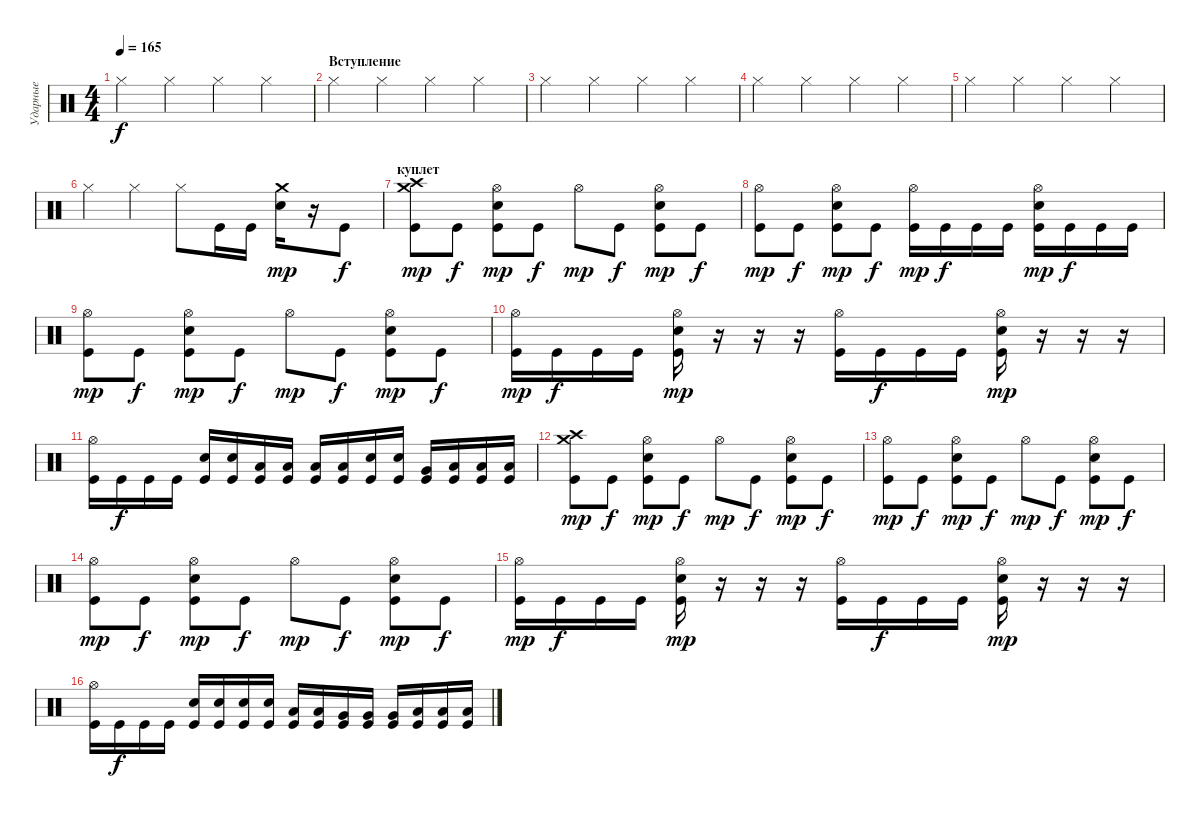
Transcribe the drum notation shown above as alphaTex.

\track ("Ударные" "Ударные") {instrument percussion}
\staff {score}
\articulation defaults
\ts (4 4)
\tempo 165
\clef neutral
\ks c "Hi-Hat (closed)".4{dy f} "Hi-Hat (closed)".4 "Hi-Hat (closed)".4 "Hi-Hat (closed)".4
|
\section ("" "Вступление")
"Hi-Hat (closed)".4 "Hi-Hat (closed)".4 "Hi-Hat (closed)".4 "Hi-Hat (closed)".4 |
"Hi-Hat (closed)".4 "Hi-Hat (closed)".4 "Hi-Hat (closed)".4 "Hi-Hat (closed)".4 |
"Hi-Hat (closed)".4 "Hi-Hat (closed)".4 "Hi-Hat (closed)".4 "Hi-Hat (closed)".4 |
"Hi-Hat (closed)".4 "Hi-Hat (closed)".4 "Hi-Hat (closed)".4 "Hi-Hat (closed)".4 |
"Hi-Hat (closed)".4 "Hi-Hat (closed)".4 "Hi-Hat (closed)".8 "Kick (hit)".16 "Kick (hit)".16 ("Crash medium (hit)" "Electric Snare (hit)").16{dy mp} r.16 "Kick (hit)".8{dy f} |
\section ("" "куплет")
("Crash medium (hit)" "Crash high (hit)" "Kick (hit)").8{dy mp} "Kick (hit)".8{dy f} ("Hi-Hat (open)" "Electric Snare (hit)" "Kick (hit)").8{dy mp} "Kick (hit)".8{dy f} "Hi-Hat (open)".8{dy mp} "Kick (hit)".8{dy f} ("Hi-Hat (open)" "Electric Snare (hit)" "Kick (hit)").8{dy mp} "Kick (hit)".8{dy f} |
("Hi-Hat (open)" "Kick (hit)").8{dy mp} "Kick (hit)".8{dy f} ("Hi-Hat (open)" "Electric Snare (hit)" "Kick (hit)").8{dy mp} "Kick (hit)".8{dy f} ("Hi-Hat (open)" "Kick (hit)").16{dy mp} "Kick (hit)".16{dy f} "Kick (hit)".16 "Kick (hit)".16 ("Hi-Hat (open)" "Electric Snare (hit)" "Kick (hit)").16{dy mp} "Kick (hit)".16{dy f} "Kick (hit)".16 "Kick (hit)".16 |
("Hi-Hat (open)" "Kick (hit)").8{dy mp} "Kick (hit)".8{dy f} ("Hi-Hat (open)" "Electric Snare (hit)" "Kick (hit)").8{dy mp} "Kick (hit)".8{dy f} "Hi-Hat (open)".8{dy mp} "Kick (hit)".8{dy f} ("Hi-Hat (open)" "Electric Snare (hit)" "Kick (hit)").8{dy mp} "Kick (hit)".8{dy f} |
("Hi-Hat (open)" "Kick (hit)").16{dy mp} "Kick (hit)".16{dy f} "Kick (hit)".16 "Kick (hit)".16 ("Hi-Hat (open)" "Electric Snare (hit)" "Kick (hit)").16{dy mp} r.16 r.16 r.16 ("Hi-Hat (open)" "Kick (hit)").16 "Kick (hit)".16{dy f} "Kick (hit)".16 "Kick (hit)".16 ("Hi-Hat (open)" "Electric Snare (hit)" "Kick (hit)").16{dy mp} r.16 r.16 r.16 |
("Hi-Hat (open)" "Kick (hit)").16 "Kick (hit)".16{dy f} "Kick (hit)".16 "Kick (hit)".16 ("Electric Snare (hit)" "Kick (hit)").16 ("Electric Snare (hit)" "Kick (hit)").16 ("Low Tom (hit)" "Kick (hit)").16 ("Low Tom (hit)" "Kick (hit)").16 ("Low Tom (hit)" "Kick (hit)").16 ("Low Tom (hit)" "Kick (hit)").16 ("Electric Snare (hit)" "Kick (hit)").16 ("Electric Snare (hit)" "Kick (hit)").16 ("Very Low Tom (hit)" "Kick (hit)").16 ("Low Floor Tom (hit)" "Kick (hit)").16 ("Low Floor Tom (hit)" "Kick (hit)").16 ("Low Floor Tom (hit)" "Kick (hit)").16 |
("Crash medium (hit)" "Crash high (hit)" "Kick (hit)").8{dy mp} "Kick (hit)".8{dy f} ("Hi-Hat (open)" "Electric Snare (hit)" "Kick (hit)").8{dy mp} "Kick (hit)".8{dy f} "Hi-Hat (open)".8{dy mp} "Kick (hit)".8{dy f} ("Hi-Hat (open)" "Electric Snare (hit)" "Kick (hit)").8{dy mp} "Kick (hit)".8{dy f} |
("Hi-Hat (open)" "Kick (hit)").8{dy mp} "Kick (hit)".8{dy f} ("Hi-Hat (open)" "Electric Snare (hit)" "Kick (hit)").8{dy mp} "Kick (hit)".8{dy f} "Hi-Hat (open)".8{dy mp} "Kick (hit)".8{dy f} ("Hi-Hat (open)" "Electric Snare (hit)" "Kick (hit)").8{dy mp} "Kick (hit)".8{dy f} |
("Hi-Hat (open)" "Kick (hit)").8{dy mp} "Kick (hit)".8{dy f} ("Hi-Hat (open)" "Electric Snare (hit)" "Kick (hit)").8{dy mp} "Kick (hit)".8{dy f} "Hi-Hat (open)".8{dy mp} "Kick (hit)".8{dy f} ("Hi-Hat (open)" "Electric Snare (hit)" "Kick (hit)").8{dy mp} "Kick (hit)".8{dy f} |
("Hi-Hat (open)" "Kick (hit)").16{dy mp} "Kick (hit)".16{dy f} "Kick (hit)".16 "Kick (hit)".16 ("Hi-Hat (open)" "Electric Snare (hit)" "Kick (hit)").16{dy mp} r.16 r.16 r.16 ("Hi-Hat (open)" "Kick (hit)").16 "Kick (hit)".16{dy f} "Kick (hit)".16 "Kick (hit)".16 ("Hi-Hat (open)" "Electric Snare (hit)" "Kick (hit)").16{dy mp} r.16 r.16 r.16 |
("Hi-Hat (open)" "Kick (hit)").16 "Kick (hit)".16{dy f} "Kick (hit)".16 "Kick (hit)".16 ("Electric Snare (hit)" "Kick (hit)").16 ("Electric Snare (hit)" "Kick (hit)").16 ("Electric Snare (hit)" "Kick (hit)").16 ("Electric Snare (hit)" "Kick (hit)").16 ("Low Tom (hit)" "Kick (hit)").16 ("Low Tom (hit)" "Kick (hit)").16 ("Very Low Tom (hit)" "Kick (hit)").16 ("Very Low Tom (hit)" "Kick (hit)").16 ("Very Low Tom (hit)" "Kick (hit)").16 ("Low Floor Tom (hit)" "Kick (hit)").16 ("Low Floor Tom (hit)" "Kick (hit)").16 ("Low Floor Tom (hit)" "Kick (hit)").16
